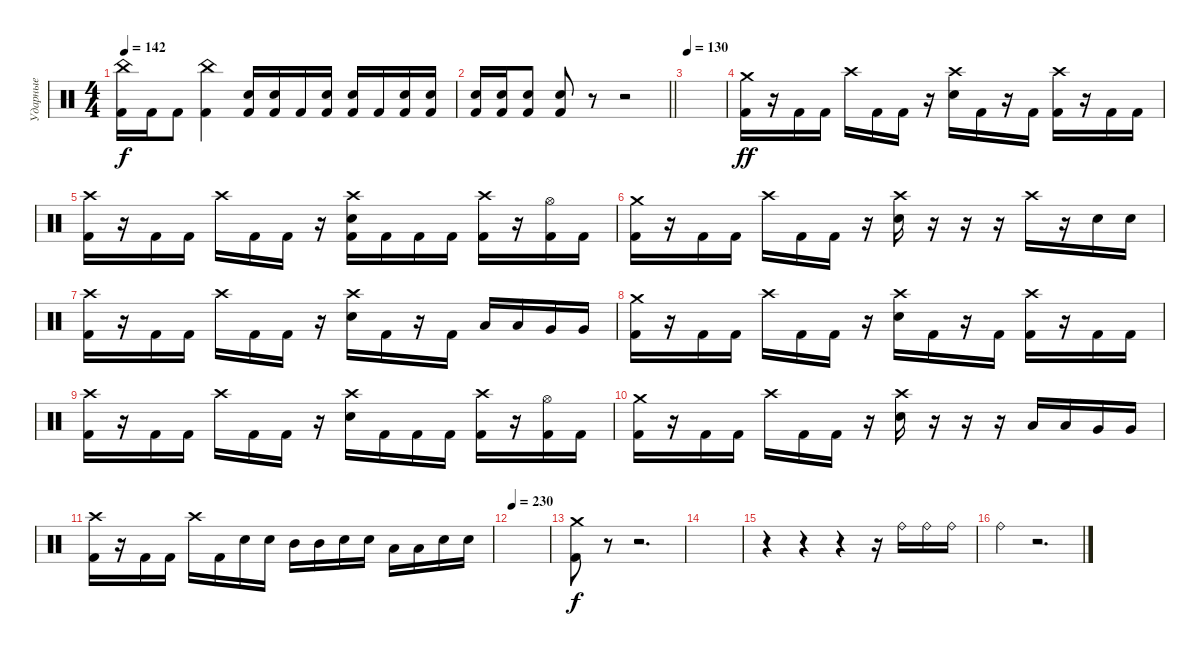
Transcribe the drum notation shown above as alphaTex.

\track ("Ударные" "Ударные") {instrument percussion}
\staff {score}
\articulation defaults
\ts (4 4)
\tempo 142
\clef neutral
\ks c
("China (hit)" "Kick (hit) 2").16{dy f} "Kick (hit) 2".16 "Kick (hit) 2".8 ("China (hit)" "Kick (hit) 2").4 ("Electric Snare (hit)" "Kick (hit) 2").16 ("Electric Snare (hit)" "Kick (hit) 2").16 "Kick (hit) 2".16 ("Electric Snare (hit)" "Kick (hit) 2").16 ("Electric Snare (hit)" "Kick (hit) 2").16 "Kick (hit) 2".16 ("Electric Snare (hit)" "Kick (hit) 2").16 ("Electric Snare (hit)" "Kick (hit) 2").16 |
\barLineRight lightlight
("Electric Snare (hit)" "Kick (hit) 2").16 ("Electric Snare (hit)" "Kick (hit) 2").16 ("Electric Snare (hit)" "Kick (hit) 2").8 ("Electric Snare (hit)" "Kick (hit) 2").8 r.8 r.2 |
\tempo 130
|
("Crash medium (hit)" "Kick (hit) 2").16{dy ff} r.16 "Kick (hit) 2".16 "Kick (hit) 2".16 "Crash high (hit)".16 "Kick (hit) 2".16 "Kick (hit) 2".16 r.16 ("Crash high (hit)" "Electric Snare (hit)").16 "Kick (hit) 2".16 r.16 "Kick (hit) 2".16 ("Crash high (hit)" "Kick (hit) 2").16 r.16 "Kick (hit) 2".16 "Kick (hit) 2".16 |
("Crash high (hit)" "Kick (hit) 2").16 r.16 "Kick (hit) 2".16 "Kick (hit) 2".16 "Crash high (hit)".16 "Kick (hit) 2".16 "Kick (hit) 2".16 r.16 ("Crash high (hit)" "Electric Snare (hit)" "Kick (hit) 2").16 "Kick (hit) 2".16 "Kick (hit) 2".16 "Kick (hit) 2".16 ("Crash high (hit)" "Kick (hit) 2").16 r.16 ("Hi-Hat (open)" "Kick (hit) 2").16 "Kick (hit) 2".16 |
("Crash medium (hit)" "Kick (hit) 2").16 r.16 "Kick (hit) 2".16 "Kick (hit) 2".16 "Crash high (hit)".16 "Kick (hit) 2".16 "Kick (hit) 2".16 r.16 ("Crash high (hit)" "Electric Snare (hit)").16 r.16 r.16 r.16 "Crash high (hit)".16 r.16 "Electric Snare (hit)".16 "Electric Snare (hit)".16 |
("Crash high (hit)" "Kick (hit) 2").16 r.16 "Kick (hit) 2".16 "Kick (hit) 2".16 "Crash high (hit)".16 "Kick (hit) 2".16 "Kick (hit) 2".16 r.16 ("Crash high (hit)" "Electric Snare (hit)").16 "Kick (hit) 2".16 r.16 "Kick (hit) 2".16 "Low Tom (hit)".16 "Low Tom (hit)".16 "Very Low Tom (hit)".16 "Very Low Tom (hit)".16 |
("Crash medium (hit)" "Kick (hit) 2").16 r.16 "Kick (hit) 2".16 "Kick (hit) 2".16 "Crash high (hit)".16 "Kick (hit) 2".16 "Kick (hit) 2".16 r.16 ("Crash high (hit)" "Electric Snare (hit)").16 "Kick (hit) 2".16 r.16 "Kick (hit) 2".16 ("Crash high (hit)" "Kick (hit) 2").16 r.16 "Kick (hit) 2".16 "Kick (hit) 2".16 |
("Crash high (hit)" "Kick (hit) 2").16 r.16 "Kick (hit) 2".16 "Kick (hit) 2".16 "Crash high (hit)".16 "Kick (hit) 2".16 "Kick (hit) 2".16 r.16 ("Crash high (hit)" "Electric Snare (hit)").16 "Kick (hit) 2".16 "Kick (hit) 2".16 "Kick (hit) 2".16 ("Crash high (hit)" "Kick (hit) 2").16 r.16 ("Hi-Hat (open)" "Kick (hit) 2").16 "Kick (hit) 2".16 |
("Crash medium (hit)" "Kick (hit) 2").16 r.16 "Kick (hit) 2".16 "Kick (hit) 2".16 "Crash high (hit)".16 "Kick (hit) 2".16 "Kick (hit) 2".16 r.16 ("Crash high (hit)" "Electric Snare (hit)").16 r.16 r.16 r.16 "Low Tom (hit)".16 "Low Tom (hit)".16 "Very Low Tom (hit)".16 "Very Low Tom (hit)".16 |
("Crash high (hit)" "Kick (hit) 2").16 r.16 "Kick (hit) 2".16 "Kick (hit) 2".16 "Crash high (hit)".16 "Kick (hit) 2".16 "Electric Snare (hit)".16 "Electric Snare (hit)".16 "Mid Tom (hit)".16 "Mid Tom (hit)".16 "Electric Snare (hit)".16 "Electric Snare (hit)".16 "Low Tom (hit)".16 "Low Tom (hit)".16 "Snare (hit) 2".16 "Snare (hit) 2".16 |
\tempo 230
|
("Crash medium (hit)" "Kick (hit) 2").8{dy f} r.8 r.2{d} |
|
r.4 r.4 r.4 r.16 "Ride (bell)".16 "Ride (bell)".16 "Ride (bell)".16 |
"Ride (bell)".4 r.2{d}
